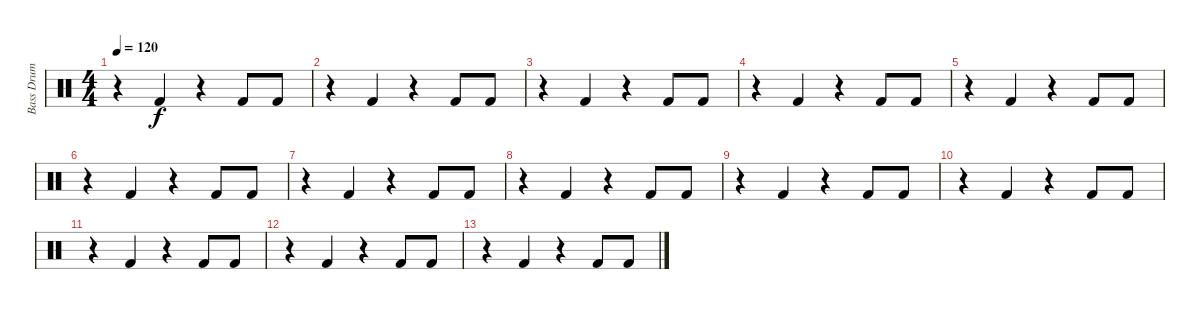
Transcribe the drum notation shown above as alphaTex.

\track ("Bass Drum" "Bass Drum") {instrument percussion}
\staff {score}
\articulation defaults
\ts (4 4)
\tempo 120
\clef neutral
\ks c
r.4{dy f} "Kick (hit) 2".4 r.4 "Kick (hit) 2".8 "Kick (hit) 2".8 |
r.4 "Kick (hit) 2".4 r.4 "Kick (hit) 2".8 "Kick (hit) 2".8 |
r.4 "Kick (hit) 2".4 r.4 "Kick (hit) 2".8 "Kick (hit) 2".8 |
r.4 "Kick (hit) 2".4 r.4 "Kick (hit) 2".8 "Kick (hit) 2".8 |
r.4 "Kick (hit) 2".4 r.4 "Kick (hit) 2".8 "Kick (hit) 2".8 |
r.4 "Kick (hit) 2".4 r.4 "Kick (hit) 2".8 "Kick (hit) 2".8 |
r.4 "Kick (hit) 2".4 r.4 "Kick (hit) 2".8 "Kick (hit) 2".8 |
r.4 "Kick (hit) 2".4 r.4 "Kick (hit) 2".8 "Kick (hit) 2".8 |
r.4 "Kick (hit) 2".4 r.4 "Kick (hit) 2".8 "Kick (hit) 2".8 |
r.4 "Kick (hit) 2".4 r.4 "Kick (hit) 2".8 "Kick (hit) 2".8 |
r.4 "Kick (hit) 2".4 r.4 "Kick (hit) 2".8 "Kick (hit) 2".8 |
r.4 "Kick (hit) 2".4 r.4 "Kick (hit) 2".8 "Kick (hit) 2".8 |
r.4 "Kick (hit) 2".4 r.4 "Kick (hit) 2".8 "Kick (hit) 2".8
